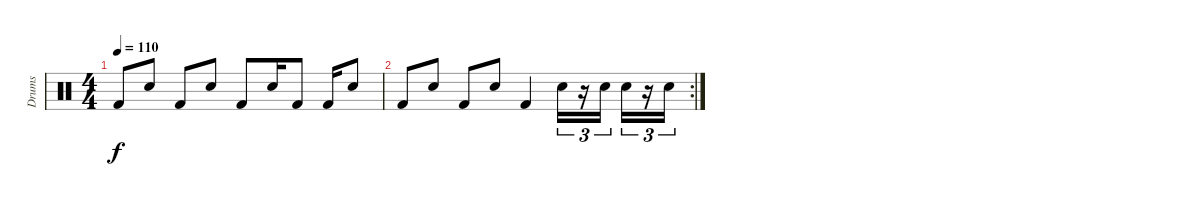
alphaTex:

\track ("Drums" "Drums") {instrument percussion}
\staff {score}
\articulation defaults
\ts (4 4)
\tempo 110
\clef neutral
\ks c "Kick (hit) 2".8{dy f} "Electric Snare (hit)".8 "Kick (hit) 2".8 "Electric Snare (hit)".8 "Kick (hit) 2".8 "Electric Snare (hit)".16 "Kick (hit) 2".8 "Kick (hit) 2".16 "Electric Snare (hit)".8
|
\rc 2 "Kick (hit) 2".8 "Electric Snare (hit)".8 "Kick (hit) 2".8 "Electric Snare (hit)".8 "Kick (hit) 2".4 "Electric Snare (hit)".16{tu (3 2)}
r.16{tu (3 2)} "Snare (hit) 2".16{tu (3 2)} "Snare (hit) 2".16{tu (3 2)} r.16{tu (3 2)} "Snare (hit) 2".16{tu (3 2)}
